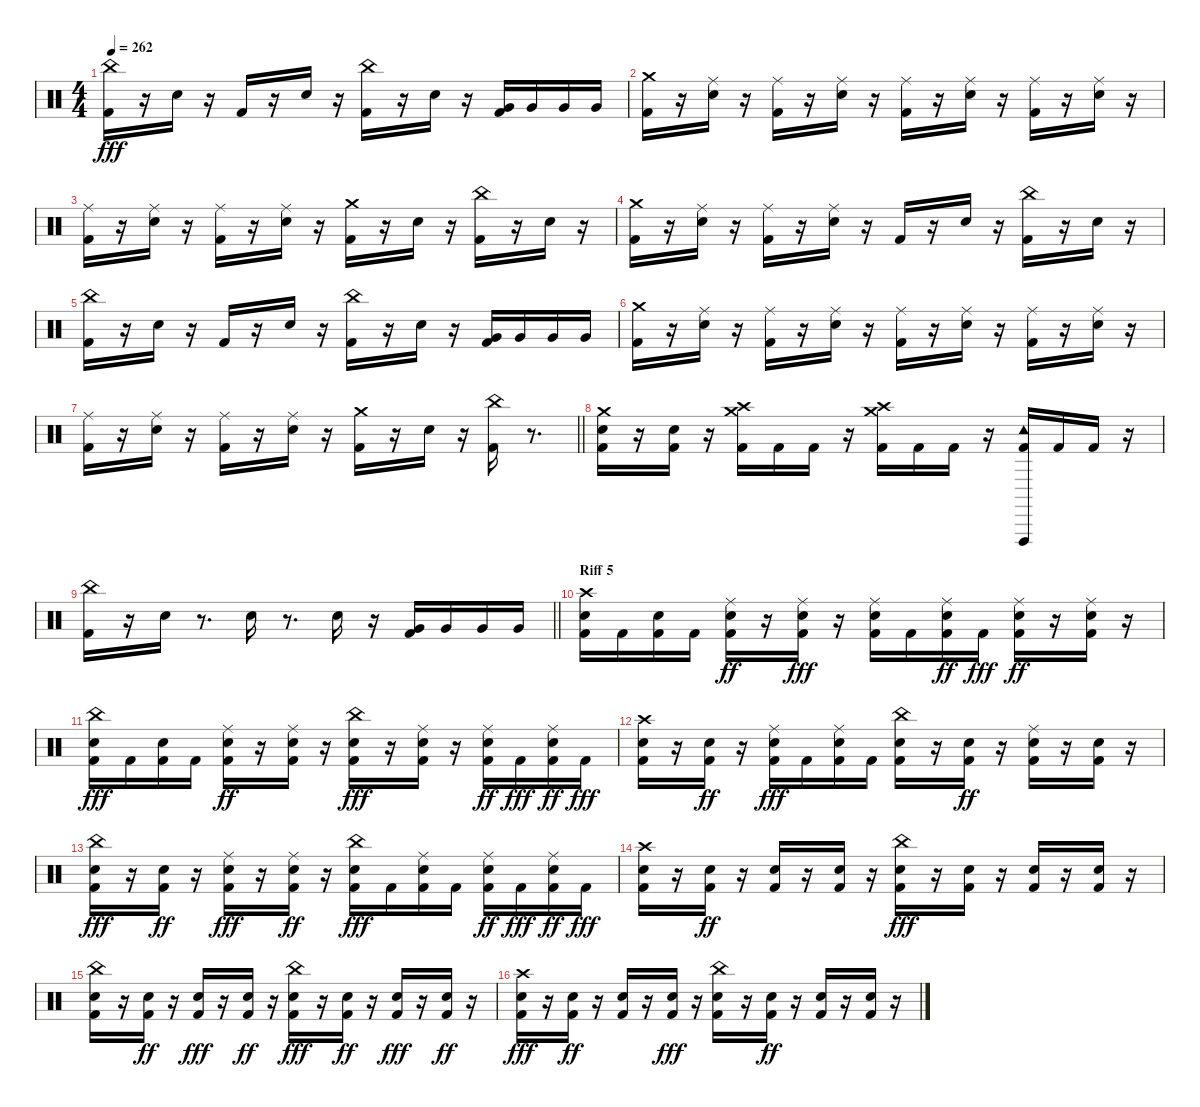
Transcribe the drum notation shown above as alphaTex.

\track "" {instrument percussion}
\staff {score}
\articulation defaults
\ts (4 4)
\tempo 262
\clef neutral
\ks c
("China (hit)" "Kick (hit) 2").16{dy fff} r.16 "Snare (hit) 2".16 r.16 "Kick (hit) 2".16 r.16 "Snare (hit) 2".16 r.16 ("China (hit)" "Kick (hit) 2").16 r.16 "Snare (hit) 2".16 r.16 ("Very Low Tom (hit)" "Kick (hit) 2").16 "Very Low Tom (hit)".16 "Very Low Tom (hit)".16 "Very Low Tom (hit)".16 |
("Kick (hit) 2" "Crash medium (hit)").16 r.16 ("Snare (hit) 2" "Ride (middle)").16 r.16 ("Kick (hit) 2" "Ride (middle)").16 r.16 ("Snare (hit) 2" "Ride (middle)").16 r.16 ("Kick (hit) 2" "Ride (middle)").16 r.16 ("Snare (hit) 2" "Ride (middle)").16 r.16 ("Kick (hit) 2" "Ride (middle)").16 r.16 ("Snare (hit) 2" "Ride (middle)").16 r.16 |
("Kick (hit) 2" "Ride (middle)").16 r.16 ("Snare (hit) 2" "Ride (middle)").16 r.16 ("Kick (hit) 2" "Ride (middle)").16 r.16 ("Snare (hit) 2" "Ride (middle)").16 r.16 ("Kick (hit) 2" "Crash medium (hit)").16 r.16 "Snare (hit) 2".16 r.16 ("Kick (hit) 2" "China (hit)").16 r.16 "Snare (hit) 2".16 r.16 |
("Crash medium (hit)" "Kick (hit) 2").16 r.16 ("Snare (hit) 2" "Ride (middle)").16 r.16 ("Kick (hit) 2" "Ride (middle)").16 r.16 ("Snare (hit) 2" "Ride (middle)").16 r.16 "Kick (hit) 2".16 r.16 "Snare (hit) 2".16 r.16 ("Kick (hit) 2" "China (hit)").16 r.16 "Snare (hit) 2".16 r.16 |
("China (hit)" "Kick (hit) 2").16 r.16 "Snare (hit) 2".16 r.16 "Kick (hit) 2".16 r.16 "Snare (hit) 2".16 r.16 ("China (hit)" "Kick (hit) 2").16 r.16 "Snare (hit) 2".16 r.16 ("Very Low Tom (hit)" "Kick (hit) 2").16 "Very Low Tom (hit)".16 "Very Low Tom (hit)".16 "Very Low Tom (hit)".16 |
("Kick (hit) 2" "Crash medium (hit)").16 r.16 ("Snare (hit) 2" "Ride (middle)").16 r.16 ("Kick (hit) 2" "Ride (middle)").16 r.16 ("Snare (hit) 2" "Ride (middle)").16 r.16 ("Kick (hit) 2" "Ride (middle)").16 r.16 ("Snare (hit) 2" "Ride (middle)").16 r.16 ("Kick (hit) 2" "Ride (middle)").16 r.16 ("Snare (hit) 2" "Ride (middle)").16 r.16 |
\barLineRight lightlight
("Kick (hit) 2" "Ride (middle)").16 r.16 ("Snare (hit) 2" "Ride (middle)").16 r.16 ("Kick (hit) 2" "Ride (middle)").16 r.16 ("Snare (hit) 2" "Ride (middle)").16 r.16 ("Kick (hit) 2" "Crash medium (hit)").16 r.16 "Snare (hit) 2".16 r.16 ("Kick (hit) 2" "China (hit)").16 r.8{d} |
\section ("" "")
("Crash medium (hit)" "Kick (hit) 2" "Snare (hit) 2").16 r.16 ("Kick (hit) 2" "Snare (hit) 2").16 r.16 ("Kick (hit) 2" "Crash high (hit)" "Crash medium (hit)").16 "Kick (hit) 2".16 "Kick (hit) 2".16 r.16 ("Kick (hit) 2" "Crash high (hit)" "Crash medium (hit)").16 "Kick (hit) 2".16 "Kick (hit) 2".16 r.16 ("Kick (hit) 2" "Tambourine (hit)" "Vibraslap (hit)").16 "Kick (hit) 2".16 "Kick (hit) 2".16 r.16 |
\barLineRight lightlight
("Kick (hit) 2" "China (hit)").16 r.16 "Snare (hit) 2".16 r.8{d} "Snare (hit) 2".16 r.8{d} "Snare (hit) 2".16 r.16 ("Very Low Tom (hit)" "Kick (hit) 2").16 "Very Low Tom (hit)".16 "Very Low Tom (hit)".16 "Very Low Tom (hit)".16 |
\section ("" "Riff 5")
("Kick (hit) 2" "Snare (hit) 2" "Crash high (hit)").16 "Kick (hit) 2".16 ("Kick (hit) 2" "Snare (hit) 2").16 "Kick (hit) 2".16 ("Kick (hit) 2" "Snare (hit) 2" "Ride (middle)").16{dy ff} r.16 ("Kick (hit) 2" "Snare (hit) 2" "Ride (middle)").16{dy fff} r.16 ("Kick (hit) 2" "Snare (hit) 2" "Ride (middle)").16 "Kick (hit) 2".16 ("Kick (hit) 2" "Snare (hit) 2" "Ride (middle)").16{dy ff} "Kick (hit) 2".16{dy fff} ("Kick (hit) 2" "Snare (hit) 2" "Ride (middle)").16{dy ff} r.16 ("Kick (hit) 2" "Snare (hit) 2" "Ride (middle)").16 r.16 |
("Kick (hit) 2" "Snare (hit) 2" "China (hit)").16{dy fff} "Kick (hit) 2".16 ("Kick (hit) 2" "Snare (hit) 2").16 "Kick (hit) 2".16 ("Kick (hit) 2" "Snare (hit) 2" "Ride (middle)").16{dy ff} r.16 ("Kick (hit) 2" "Snare (hit) 2" "Ride (middle)").16 r.16 ("Kick (hit) 2" "Snare (hit) 2" "China (hit)").16{dy fff} r.16 ("Kick (hit) 2" "Snare (hit) 2" "Ride (middle)").16 r.16 ("Kick (hit) 2" "Snare (hit) 2" "Ride (middle)").16{dy ff} "Kick (hit) 2".16{dy fff} ("Kick (hit) 2" "Snare (hit) 2" "Ride (middle)").16{dy ff} "Kick (hit) 2".16{dy fff} |
("Kick (hit) 2" "Snare (hit) 2" "Crash high (hit)").16 r.16 ("Kick (hit) 2" "Snare (hit) 2").16{dy ff} r.16 ("Kick (hit) 2" "Snare (hit) 2" "Ride (middle)").16{dy fff} "Kick (hit) 2".16 ("Kick (hit) 2" "Snare (hit) 2" "Ride (middle)").16 "Kick (hit) 2".16 ("Kick (hit) 2" "Snare (hit) 2" "China (hit)").16 r.16 ("Kick (hit) 2" "Snare (hit) 2").16{dy ff} r.16 ("Kick (hit) 2" "Snare (hit) 2" "Ride (middle)").16 r.16 ("Kick (hit) 2" "Snare (hit) 2").16 r.16 |
("Kick (hit) 2" "Snare (hit) 2" "China (hit)").16{dy fff} r.16 ("Kick (hit) 2" "Snare (hit) 2").16{dy ff} r.16 ("Kick (hit) 2" "Snare (hit) 2" "Ride (middle)").16{dy fff} r.16 ("Kick (hit) 2" "Snare (hit) 2" "Ride (middle)").16{dy ff} r.16 ("Kick (hit) 2" "Snare (hit) 2" "China (hit)").16{dy fff} "Kick (hit) 2".16 ("Kick (hit) 2" "Snare (hit) 2" "Ride (middle)").16 "Kick (hit) 2".16 ("Kick (hit) 2" "Snare (hit) 2" "Ride (middle)").16{dy ff} "Kick (hit) 2".16{dy fff} ("Kick (hit) 2" "Snare (hit) 2" "Ride (middle)").16{dy ff} "Kick (hit) 2".16{dy fff} |
("Kick (hit) 2" "Snare (hit) 2" "Crash high (hit)").16 r.16 ("Kick (hit) 2" "Snare (hit) 2").16{dy ff} r.16 ("Kick (hit) 2" "Snare (hit) 2").16 r.16 ("Kick (hit) 2" "Snare (hit) 2").16 r.16 ("Kick (hit) 2" "Snare (hit) 2" "China (hit)").16{dy fff} r.16 ("Kick (hit) 2" "Snare (hit) 2").16 r.16 ("Kick (hit) 2" "Snare (hit) 2").16 r.16 ("Kick (hit) 2" "Snare (hit) 2").16 r.16 |
("Kick (hit) 2" "Snare (hit) 2" "China (hit)").16 r.16 ("Kick (hit) 2" "Snare (hit) 2").16{dy ff} r.16 ("Kick (hit) 2" "Snare (hit) 2").16{dy fff} r.16 ("Kick (hit) 2" "Snare (hit) 2").16{dy ff} r.16 ("Kick (hit) 2" "Snare (hit) 2" "China (hit)").16{dy fff} r.16 ("Kick (hit) 2" "Snare (hit) 2").16{dy ff} r.16 ("Kick (hit) 2" "Snare (hit) 2").16{dy fff} r.16 ("Kick (hit) 2" "Snare (hit) 2").16{dy ff} r.16 |
("Kick (hit) 2" "Snare (hit) 2" "Crash high (hit)").16{dy fff} r.16 ("Kick (hit) 2" "Snare (hit) 2").16{dy ff} r.16 ("Kick (hit) 2" "Snare (hit) 2").16 r.16 ("Kick (hit) 2" "Snare (hit) 2").16{dy fff} r.16 ("Kick (hit) 2" "Snare (hit) 2" "China (hit)").16 r.16 ("Kick (hit) 2" "Snare (hit) 2").16{dy ff} r.16 ("Kick (hit) 2" "Snare (hit) 2").16 r.16 ("Kick (hit) 2" "Snare (hit) 2").16 r.16
